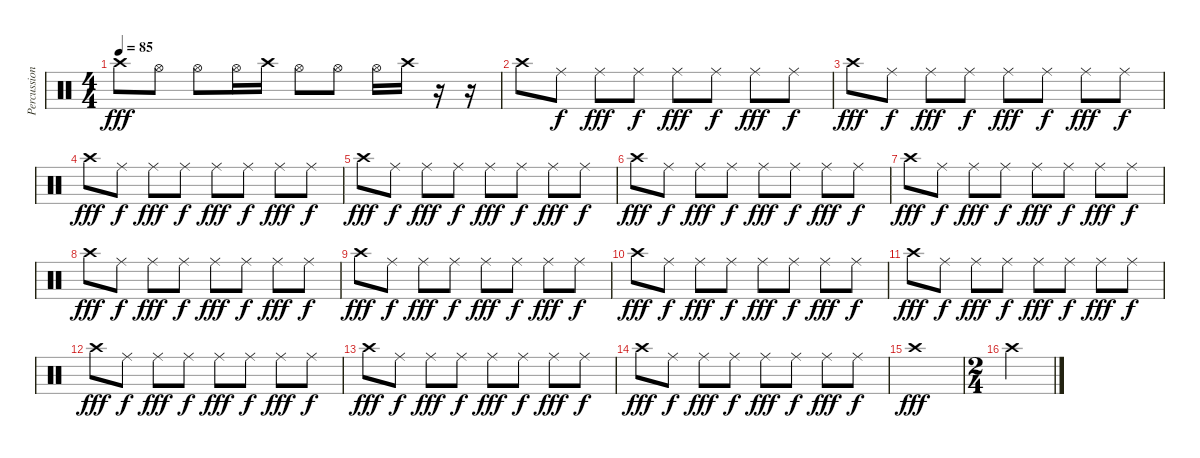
\track ("Percussion" "Percussion") {instrument percussion}
\staff {score}
\articulation defaults
\ts (4 4)
\tempo 85
\clef neutral
\ks c "Crash high (hit)".8{dy fff} "Hi-Hat (open)".8 "Hi-Hat (open)".8 "Hi-Hat (open)".16 "Crash high (hit)".16 "Hi-Hat (open)".8 "Hi-Hat (open)".8 "Hi-Hat (open)".16 "Crash high (hit)".16
r.16 r.16 |
"Crash high (hit)".8 "Ride (middle)".8{dy f} "Ride (middle)".8{dy fff} "Ride (middle)".8{dy f} "Ride (middle)".8{dy fff} "Ride (middle)".8{dy f} "Ride (middle)".8{dy fff} "Ride (middle)".8{dy f} |
"Crash high (hit)".8{dy fff} "Ride (middle)".8{dy f} "Ride (middle)".8{dy fff} "Ride (middle)".8{dy f} "Ride (middle)".8{dy fff} "Ride (middle)".8{dy f} "Ride (middle)".8{dy fff} "Ride (middle)".8{dy f} |
"Crash high (hit)".8{dy fff} "Ride (middle)".8{dy f} "Ride (middle)".8{dy fff} "Ride (middle)".8{dy f} "Ride (middle)".8{dy fff} "Ride (middle)".8{dy f} "Ride (middle)".8{dy fff} "Ride (middle)".8{dy f} |
"Crash high (hit)".8{dy fff} "Ride (middle)".8{dy f} "Ride (middle)".8{dy fff} "Ride (middle)".8{dy f} "Ride (middle)".8{dy fff} "Ride (middle)".8{dy f} "Ride (middle)".8{dy fff} "Ride (middle)".8{dy f} |
"Crash high (hit)".8{dy fff} "Ride (middle)".8{dy f} "Ride (middle)".8{dy fff} "Ride (middle)".8{dy f} "Ride (middle)".8{dy fff} "Ride (middle)".8{dy f} "Ride (middle)".8{dy fff} "Ride (middle)".8{dy f} |
"Crash high (hit)".8{dy fff} "Ride (middle)".8{dy f} "Ride (middle)".8{dy fff} "Ride (middle)".8{dy f} "Ride (middle)".8{dy fff} "Ride (middle)".8{dy f} "Ride (middle)".8{dy fff} "Ride (middle)".8{dy f} |
"Crash high (hit)".8{dy fff} "Ride (middle)".8{dy f} "Ride (middle)".8{dy fff} "Ride (middle)".8{dy f} "Ride (middle)".8{dy fff} "Ride (middle)".8{dy f} "Ride (middle)".8{dy fff} "Ride (middle)".8{dy f} |
"Crash high (hit)".8{dy fff} "Ride (middle)".8{dy f} "Ride (middle)".8{dy fff} "Ride (middle)".8{dy f} "Ride (middle)".8{dy fff} "Ride (middle)".8{dy f} "Ride (middle)".8{dy fff} "Ride (middle)".8{dy f} |
"Crash high (hit)".8{dy fff} "Ride (middle)".8{dy f} "Ride (middle)".8{dy fff} "Ride (middle)".8{dy f} "Ride (middle)".8{dy fff} "Ride (middle)".8{dy f} "Ride (middle)".8{dy fff} "Ride (middle)".8{dy f} |
"Crash high (hit)".8{dy fff} "Ride (middle)".8{dy f} "Ride (middle)".8{dy fff} "Ride (middle)".8{dy f} "Ride (middle)".8{dy fff} "Ride (middle)".8{dy f} "Ride (middle)".8{dy fff} "Ride (middle)".8{dy f} |
"Crash high (hit)".8{dy fff} "Ride (middle)".8{dy f} "Ride (middle)".8{dy fff} "Ride (middle)".8{dy f} "Ride (middle)".8{dy fff} "Ride (middle)".8{dy f} "Ride (middle)".8{dy fff} "Ride (middle)".8{dy f} |
"Crash high (hit)".8{dy fff} "Ride (middle)".8{dy f} "Ride (middle)".8{dy fff} "Ride (middle)".8{dy f} "Ride (middle)".8{dy fff} "Ride (middle)".8{dy f} "Ride (middle)".8{dy fff} "Ride (middle)".8{dy f} |
"Crash high (hit)".8{dy fff} "Ride (middle)".8{dy f} "Ride (middle)".8{dy fff} "Ride (middle)".8{dy f} "Ride (middle)".8{dy fff} "Ride (middle)".8{dy f} "Ride (middle)".8{dy fff} "Ride (middle)".8{dy f} |
"Crash high (hit)".1{dy fff} |
\ts (2 4)
"Crash high (hit)".2
